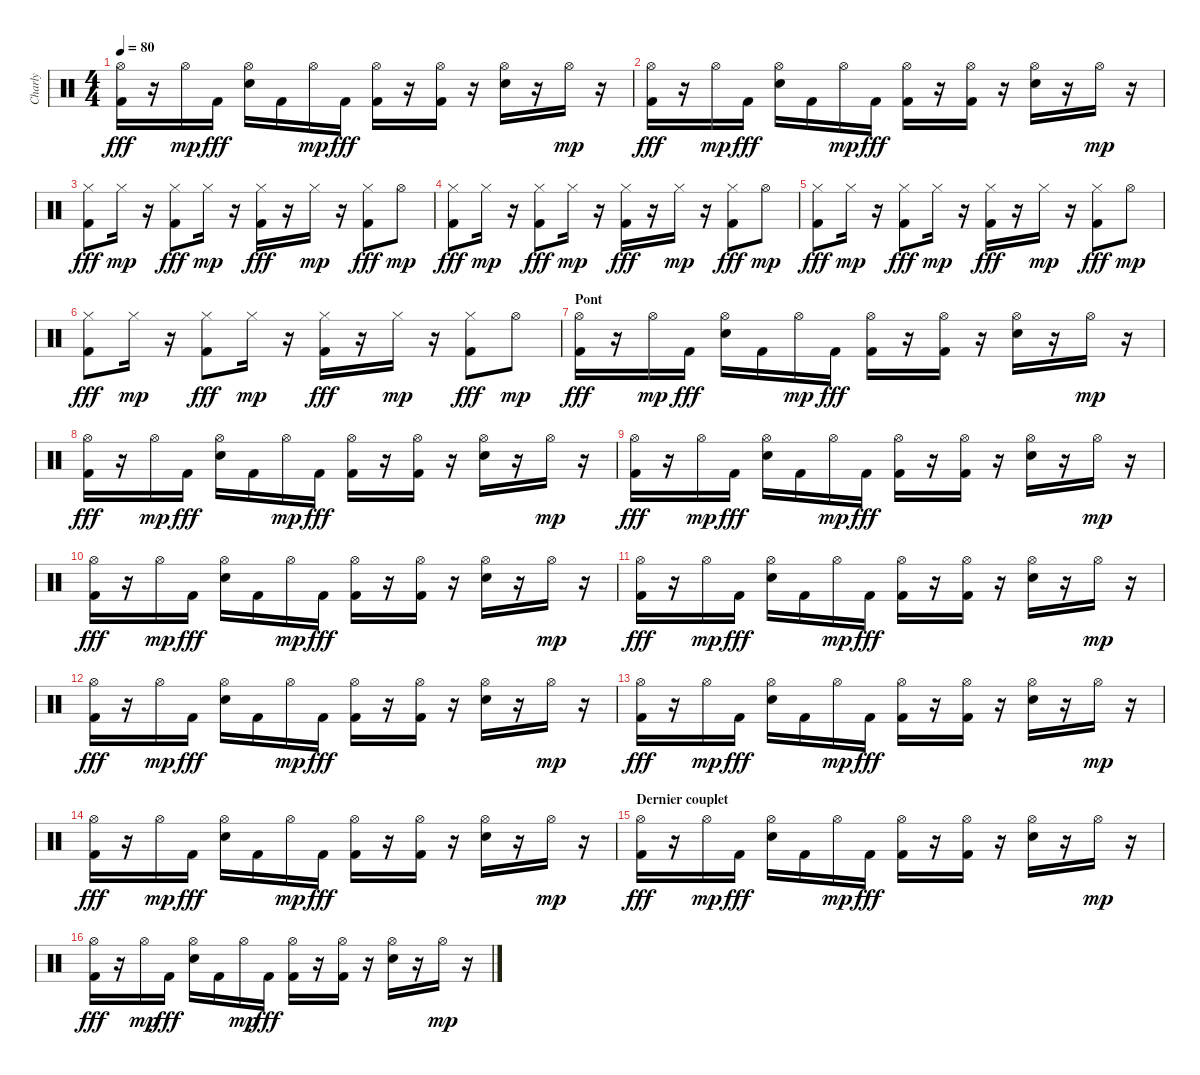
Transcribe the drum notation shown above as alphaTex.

\track ("Charly" "Charly") {instrument percussion}
\staff {score}
\articulation defaults
\ts (4 4)
\tempo 80
\clef neutral
\ks c
("Hi-Hat (open)" "Kick (hit) 2").16{dy fff} r.16 "Hi-Hat (open)".16{dy mp} "Kick (hit) 2".16{dy fff} ("Hi-Hat (open)" "Snare (hit) 2").16 "Kick (hit) 2".16 "Hi-Hat (open)".16{dy mp} "Kick (hit) 2".16{dy fff} ("Hi-Hat (open)" "Kick (hit) 2").16 r.16 ("Hi-Hat (open)" "Kick (hit) 2").16 r.16 ("Hi-Hat (open)" "Snare (hit) 2").16 r.16 "Hi-Hat (open)".16{dy mp} r.16 |
("Hi-Hat (open)" "Kick (hit) 2").16{dy fff} r.16 "Hi-Hat (open)".16{dy mp} "Kick (hit) 2".16{dy fff} ("Hi-Hat (open)" "Snare (hit) 2").16 "Kick (hit) 2".16 "Hi-Hat (open)".16{dy mp} "Kick (hit) 2".16{dy fff} ("Hi-Hat (open)" "Kick (hit) 2").16 r.16 ("Hi-Hat (open)" "Kick (hit) 2").16 r.16 ("Hi-Hat (open)" "Snare (hit) 2").16 r.16 "Hi-Hat (open)".16{dy mp} r.16 |
("Hi-Hat (closed)" "Kick (hit) 2").8{dy fff} "Hi-Hat (closed)".16{dy mp} r.16 ("Hi-Hat (closed)" "Kick (hit) 2").8{dy fff} "Hi-Hat (closed)".16{dy mp} r.16 ("Hi-Hat (closed)" "Kick (hit) 2").16{dy fff} r.16 "Hi-Hat (closed)".16{dy mp} r.16 ("Hi-Hat (closed)" "Kick (hit) 2").8{dy fff} "Hi-Hat (open)".8{dy mp} |
("Hi-Hat (closed)" "Kick (hit) 2").8{dy fff} "Hi-Hat (closed)".16{dy mp} r.16 ("Hi-Hat (closed)" "Kick (hit) 2").8{dy fff} "Hi-Hat (closed)".16{dy mp} r.16 ("Hi-Hat (closed)" "Kick (hit) 2").16{dy fff} r.16 "Hi-Hat (closed)".16{dy mp} r.16 ("Hi-Hat (closed)" "Kick (hit) 2").8{dy fff} "Hi-Hat (open)".8{dy mp} |
("Hi-Hat (closed)" "Kick (hit) 2").8{dy fff} "Hi-Hat (closed)".16{dy mp} r.16 ("Hi-Hat (closed)" "Kick (hit) 2").8{dy fff} "Hi-Hat (closed)".16{dy mp} r.16 ("Hi-Hat (closed)" "Kick (hit) 2").16{dy fff} r.16 "Hi-Hat (closed)".16{dy mp} r.16 ("Hi-Hat (closed)" "Kick (hit) 2").8{dy fff} "Hi-Hat (open)".8{dy mp} |
("Hi-Hat (closed)" "Kick (hit) 2").8{dy fff} "Hi-Hat (closed)".16{dy mp} r.16 ("Hi-Hat (closed)" "Kick (hit) 2").8{dy fff} "Hi-Hat (closed)".16{dy mp} r.16 ("Hi-Hat (closed)" "Kick (hit) 2").16{dy fff} r.16 "Hi-Hat (closed)".16{dy mp} r.16 ("Hi-Hat (closed)" "Kick (hit) 2").8{dy fff} "Hi-Hat (open)".8{dy mp} |
\section ("" "Pont")
("Hi-Hat (open)" "Kick (hit) 2").16{dy fff} r.16 "Hi-Hat (open)".16{dy mp} "Kick (hit) 2".16{dy fff} ("Hi-Hat (open)" "Snare (hit) 2").16 "Kick (hit) 2".16 "Hi-Hat (open)".16{dy mp} "Kick (hit) 2".16{dy fff} ("Hi-Hat (open)" "Kick (hit) 2").16 r.16 ("Hi-Hat (open)" "Kick (hit) 2").16 r.16 ("Hi-Hat (open)" "Snare (hit) 2").16 r.16 "Hi-Hat (open)".16{dy mp} r.16 |
("Hi-Hat (open)" "Kick (hit) 2").16{dy fff} r.16 "Hi-Hat (open)".16{dy mp} "Kick (hit) 2".16{dy fff} ("Hi-Hat (open)" "Snare (hit) 2").16 "Kick (hit) 2".16 "Hi-Hat (open)".16{dy mp} "Kick (hit) 2".16{dy fff} ("Hi-Hat (open)" "Kick (hit) 2").16 r.16 ("Hi-Hat (open)" "Kick (hit) 2").16 r.16 ("Hi-Hat (open)" "Snare (hit) 2").16 r.16 "Hi-Hat (open)".16{dy mp} r.16 |
("Hi-Hat (open)" "Kick (hit) 2").16{dy fff} r.16 "Hi-Hat (open)".16{dy mp} "Kick (hit) 2".16{dy fff} ("Hi-Hat (open)" "Snare (hit) 2").16 "Kick (hit) 2".16 "Hi-Hat (open)".16{dy mp} "Kick (hit) 2".16{dy fff} ("Hi-Hat (open)" "Kick (hit) 2").16 r.16 ("Hi-Hat (open)" "Kick (hit) 2").16 r.16 ("Hi-Hat (open)" "Snare (hit) 2").16 r.16 "Hi-Hat (open)".16{dy mp} r.16 |
("Hi-Hat (open)" "Kick (hit) 2").16{dy fff} r.16 "Hi-Hat (open)".16{dy mp} "Kick (hit) 2".16{dy fff} ("Hi-Hat (open)" "Snare (hit) 2").16 "Kick (hit) 2".16 "Hi-Hat (open)".16{dy mp} "Kick (hit) 2".16{dy fff} ("Hi-Hat (open)" "Kick (hit) 2").16 r.16 ("Hi-Hat (open)" "Kick (hit) 2").16 r.16 ("Hi-Hat (open)" "Snare (hit) 2").16 r.16 "Hi-Hat (open)".16{dy mp} r.16 |
("Hi-Hat (open)" "Kick (hit) 2").16{dy fff} r.16 "Hi-Hat (open)".16{dy mp} "Kick (hit) 2".16{dy fff} ("Hi-Hat (open)" "Snare (hit) 2").16 "Kick (hit) 2".16 "Hi-Hat (open)".16{dy mp} "Kick (hit) 2".16{dy fff} ("Hi-Hat (open)" "Kick (hit) 2").16 r.16 ("Hi-Hat (open)" "Kick (hit) 2").16 r.16 ("Hi-Hat (open)" "Snare (hit) 2").16 r.16 "Hi-Hat (open)".16{dy mp} r.16 |
("Hi-Hat (open)" "Kick (hit) 2").16{dy fff} r.16 "Hi-Hat (open)".16{dy mp} "Kick (hit) 2".16{dy fff} ("Hi-Hat (open)" "Snare (hit) 2").16 "Kick (hit) 2".16 "Hi-Hat (open)".16{dy mp} "Kick (hit) 2".16{dy fff} ("Hi-Hat (open)" "Kick (hit) 2").16 r.16 ("Hi-Hat (open)" "Kick (hit) 2").16 r.16 ("Hi-Hat (open)" "Snare (hit) 2").16 r.16 "Hi-Hat (open)".16{dy mp} r.16 |
("Hi-Hat (open)" "Kick (hit) 2").16{dy fff} r.16 "Hi-Hat (open)".16{dy mp} "Kick (hit) 2".16{dy fff} ("Hi-Hat (open)" "Snare (hit) 2").16 "Kick (hit) 2".16 "Hi-Hat (open)".16{dy mp} "Kick (hit) 2".16{dy fff} ("Hi-Hat (open)" "Kick (hit) 2").16 r.16 ("Hi-Hat (open)" "Kick (hit) 2").16 r.16 ("Hi-Hat (open)" "Snare (hit) 2").16 r.16 "Hi-Hat (open)".16{dy mp} r.16 |
("Hi-Hat (open)" "Kick (hit) 2").16{dy fff} r.16 "Hi-Hat (open)".16{dy mp} "Kick (hit) 2".16{dy fff} ("Hi-Hat (open)" "Snare (hit) 2").16 "Kick (hit) 2".16 "Hi-Hat (open)".16{dy mp} "Kick (hit) 2".16{dy fff} ("Hi-Hat (open)" "Kick (hit) 2").16 r.16 ("Hi-Hat (open)" "Kick (hit) 2").16 r.16 ("Hi-Hat (open)" "Snare (hit) 2").16 r.16 "Hi-Hat (open)".16{dy mp} r.16 |
\section ("" "Dernier couplet")
("Hi-Hat (open)" "Kick (hit) 2").16{dy fff} r.16 "Hi-Hat (open)".16{dy mp} "Kick (hit) 2".16{dy fff} ("Hi-Hat (open)" "Snare (hit) 2").16 "Kick (hit) 2".16 "Hi-Hat (open)".16{dy mp} "Kick (hit) 2".16{dy fff} ("Hi-Hat (open)" "Kick (hit) 2").16 r.16 ("Hi-Hat (open)" "Kick (hit) 2").16 r.16 ("Hi-Hat (open)" "Snare (hit) 2").16 r.16 "Hi-Hat (open)".16{dy mp} r.16 |
("Hi-Hat (open)" "Kick (hit) 2").16{dy fff} r.16 "Hi-Hat (open)".16{dy mp} "Kick (hit) 2".16{dy fff} ("Hi-Hat (open)" "Snare (hit) 2").16 "Kick (hit) 2".16 "Hi-Hat (open)".16{dy mp} "Kick (hit) 2".16{dy fff} ("Hi-Hat (open)" "Kick (hit) 2").16 r.16 ("Hi-Hat (open)" "Kick (hit) 2").16 r.16 ("Hi-Hat (open)" "Snare (hit) 2").16 r.16 "Hi-Hat (open)".16{dy mp} r.16
